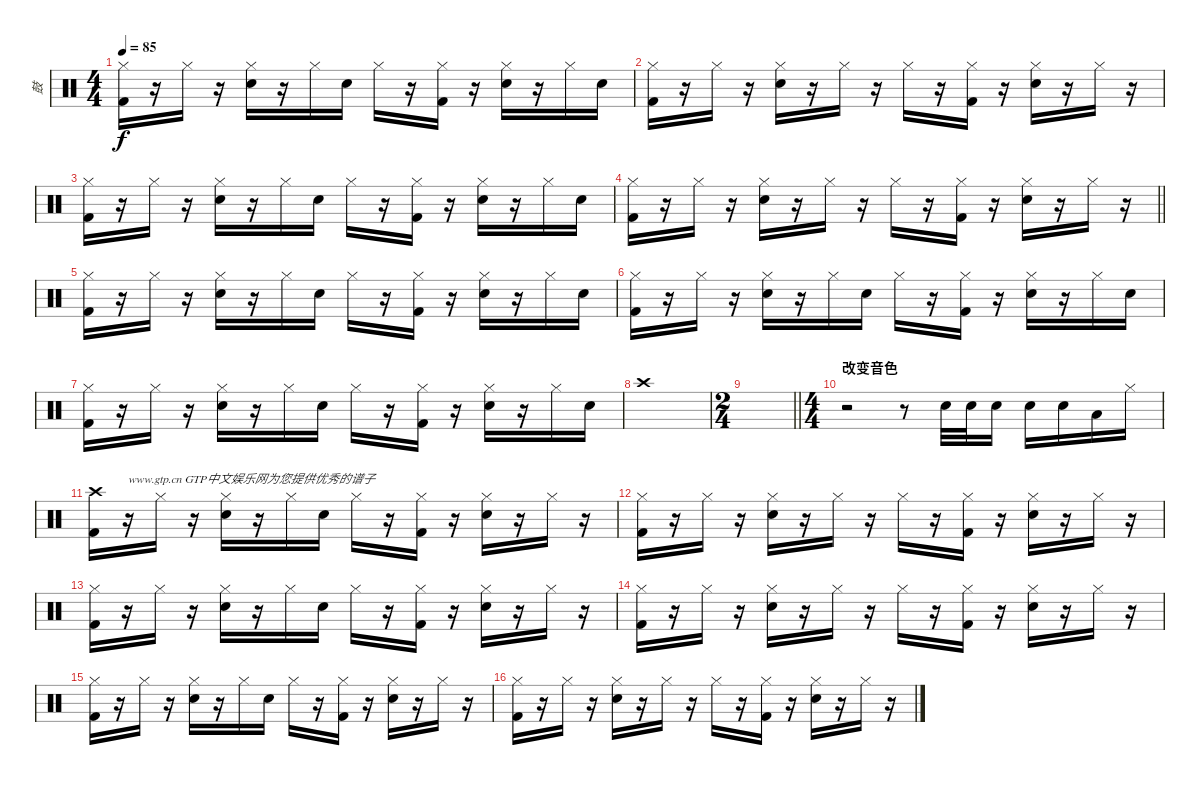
\track ("鼓" "鼓") {instrument percussion}
\staff {score}
\articulation defaults
\ts (4 4)
\tempo 85
\clef neutral
\ks c
("Hi-Hat (closed)" "Kick (hit) 2").16{dy f} r.16 "Hi-Hat (closed)".16 r.16 ("Hi-Hat (closed)" "Snare (hit) 2").16 r.16 "Hi-Hat (closed)".16 "Snare (hit) 2".16 "Hi-Hat (closed)".16 r.16 ("Hi-Hat (closed)" "Kick (hit) 2").16 r.16 ("Hi-Hat (closed)" "Snare (hit) 2").16 r.16 "Hi-Hat (closed)".16 "Snare (hit) 2".16 |
("Hi-Hat (closed)" "Kick (hit) 2").16 r.16 "Hi-Hat (closed)".16 r.16 ("Hi-Hat (closed)" "Snare (hit) 2").16 r.16 "Hi-Hat (closed)".16 r.16 "Hi-Hat (closed)".16 r.16 ("Hi-Hat (closed)" "Kick (hit) 2").16 r.16 ("Hi-Hat (closed)" "Snare (hit) 2").16 r.16 "Hi-Hat (closed)".16 r.16 |
("Hi-Hat (closed)" "Kick (hit) 2").16 r.16 "Hi-Hat (closed)".16 r.16 ("Hi-Hat (closed)" "Snare (hit) 2").16 r.16 "Hi-Hat (closed)".16 "Snare (hit) 2".16 "Hi-Hat (closed)".16 r.16 ("Hi-Hat (closed)" "Kick (hit) 2").16 r.16 ("Hi-Hat (closed)" "Snare (hit) 2").16 r.16 "Hi-Hat (closed)".16 "Snare (hit) 2".16 |
\barLineRight lightlight
("Hi-Hat (closed)" "Kick (hit) 2").16 r.16 "Hi-Hat (closed)".16 r.16 ("Hi-Hat (closed)" "Snare (hit) 2").16 r.16 "Hi-Hat (closed)".16 r.16 "Hi-Hat (closed)".16 r.16 ("Hi-Hat (closed)" "Kick (hit) 2").16 r.16 ("Hi-Hat (closed)" "Snare (hit) 2").16 r.16 "Hi-Hat (closed)".16 r.16 |
\section ("" "")
("Hi-Hat (closed)" "Kick (hit) 2").16 r.16 "Hi-Hat (closed)".16 r.16 ("Hi-Hat (closed)" "Snare (hit) 2").16 r.16 "Hi-Hat (closed)".16 "Snare (hit) 2".16 "Hi-Hat (closed)".16 r.16 ("Hi-Hat (closed)" "Kick (hit) 2").16 r.16 ("Hi-Hat (closed)" "Snare (hit) 2").16 r.16 "Hi-Hat (closed)".16 "Snare (hit) 2".16 |
("Hi-Hat (closed)" "Kick (hit) 2").16 r.16 "Hi-Hat (closed)".16 r.16 ("Hi-Hat (closed)" "Snare (hit) 2").16 r.16 "Hi-Hat (closed)".16 "Snare (hit) 2".16 "Hi-Hat (closed)".16 r.16 ("Hi-Hat (closed)" "Kick (hit) 2").16 r.16 ("Hi-Hat (closed)" "Snare (hit) 2").16 r.16 "Hi-Hat (closed)".16 "Snare (hit) 2".16 |
("Hi-Hat (closed)" "Kick (hit) 2").16 r.16 "Hi-Hat (closed)".16 r.16 ("Hi-Hat (closed)" "Snare (hit) 2").16 r.16 "Hi-Hat (closed)".16 "Snare (hit) 2".16 "Hi-Hat (closed)".16 r.16 ("Hi-Hat (closed)" "Kick (hit) 2").16 r.16 ("Hi-Hat (closed)" "Snare (hit) 2").16 r.16 "Hi-Hat (closed)".16 "Snare (hit) 2".16 |
"Crash high (hit)".1 |
\ts (2 4)
\barLineRight lightlight
|
\ts (4 4)
\section ("" "改变音色")
r.2 r.8 "Snare (hit) 2".32 "Snare (hit) 2".32 "Snare (hit) 2".16 "Snare (hit) 2".16 "Snare (hit) 2".16 "Low Tom (hit)".16 "Hi-Hat (closed)".16 |
("Crash high (hit)" "Kick (hit) 2").16 r.16{txt "www.gtp.cn GTP中文娱乐网为您提供优秀的谱子"} "Hi-Hat (closed)".16 r.16 ("Hi-Hat (closed)" "Snare (hit) 2").16 r.16 "Hi-Hat (closed)".16 "Snare (hit) 2".16 "Hi-Hat (closed)".16 r.16 ("Hi-Hat (closed)" "Kick (hit) 2").16 r.16 ("Hi-Hat (closed)" "Snare (hit) 2").16 r.16 "Hi-Hat (closed)".16 r.16 |
("Hi-Hat (closed)" "Kick (hit) 2").16 r.16 "Hi-Hat (closed)".16 r.16 ("Hi-Hat (closed)" "Snare (hit) 2").16 r.16 "Hi-Hat (closed)".16 r.16 "Hi-Hat (closed)".16 r.16 ("Hi-Hat (closed)" "Kick (hit) 2").16 r.16 ("Hi-Hat (closed)" "Snare (hit) 2").16 r.16 "Hi-Hat (closed)".16 r.16 |
("Hi-Hat (closed)" "Kick (hit) 2").16 r.16 "Hi-Hat (closed)".16 r.16 ("Hi-Hat (closed)" "Snare (hit) 2").16 r.16 "Hi-Hat (closed)".16 "Snare (hit) 2".16 "Hi-Hat (closed)".16 r.16 ("Hi-Hat (closed)" "Kick (hit) 2").16 r.16 ("Hi-Hat (closed)" "Snare (hit) 2").16 r.16 "Hi-Hat (closed)".16 r.16 |
("Hi-Hat (closed)" "Kick (hit) 2").16 r.16 "Hi-Hat (closed)".16 r.16 ("Hi-Hat (closed)" "Snare (hit) 2").16 r.16 "Hi-Hat (closed)".16 r.16 "Hi-Hat (closed)".16 r.16 ("Hi-Hat (closed)" "Kick (hit) 2").16 r.16 ("Hi-Hat (closed)" "Snare (hit) 2").16 r.16 "Hi-Hat (closed)".16 r.16 |
("Hi-Hat (closed)" "Kick (hit) 2").16 r.16 "Hi-Hat (closed)".16 r.16 ("Hi-Hat (closed)" "Snare (hit) 2").16 r.16 "Hi-Hat (closed)".16 "Snare (hit) 2".16 "Hi-Hat (closed)".16 r.16 ("Hi-Hat (closed)" "Kick (hit) 2").16 r.16 ("Hi-Hat (closed)" "Snare (hit) 2").16 r.16 "Hi-Hat (closed)".16 r.16 |
("Hi-Hat (closed)" "Kick (hit) 2").16 r.16 "Hi-Hat (closed)".16 r.16 ("Hi-Hat (closed)" "Snare (hit) 2").16 r.16 "Hi-Hat (closed)".16 r.16 "Hi-Hat (closed)".16 r.16 ("Hi-Hat (closed)" "Kick (hit) 2").16 r.16 ("Hi-Hat (closed)" "Snare (hit) 2").16 r.16 "Hi-Hat (closed)".16 r.16
